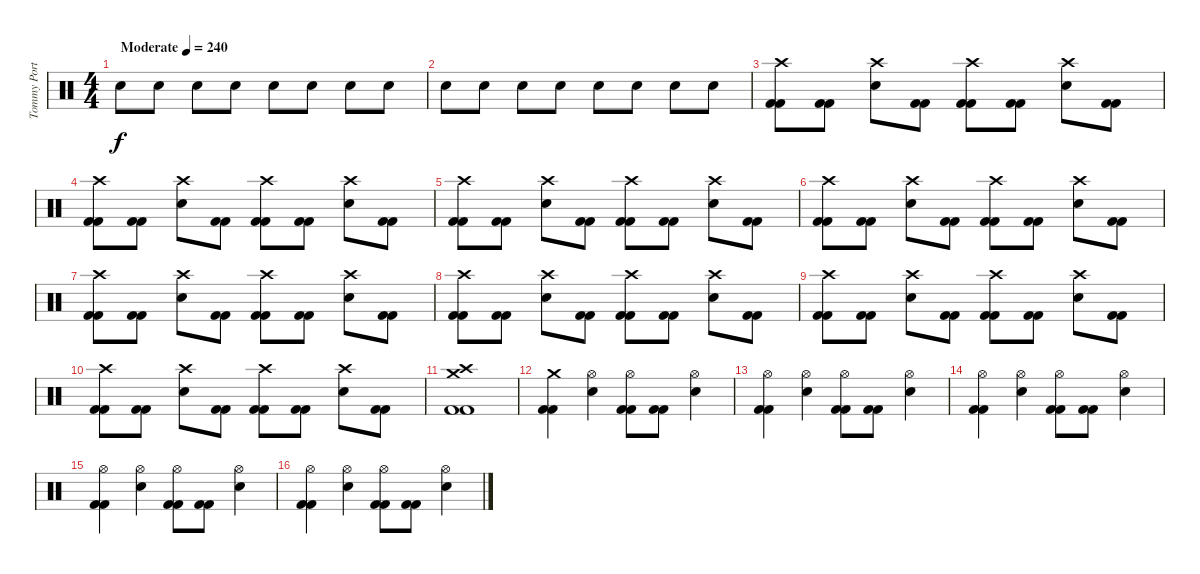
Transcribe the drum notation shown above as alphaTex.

\track ("Tommy Portimo " "Tommy Port") {instrument percussion}
\staff {score}
\articulation defaults
\ts (4 4)
\tempo (240 "Moderate")
\clef neutral
\ks c "Electric Snare (hit)".8{dy f} "Electric Snare (hit)".8 "Electric Snare (hit)".8 "Electric Snare (hit)".8 "Electric Snare (hit)".8 "Electric Snare (hit)".8 "Electric Snare (hit)".8 "Electric Snare (hit)".8
|
"Electric Snare (hit)".8 "Electric Snare (hit)".8 "Electric Snare (hit)".8 "Electric Snare (hit)".8 "Electric Snare (hit)".8 "Electric Snare (hit)".8 "Electric Snare (hit)".8 "Electric Snare (hit)".8 |
("Crash high (hit)" "Kick (hit) 2" "Kick (hit) 2").8 ("Kick (hit) 2" "Kick (hit) 2").8 ("Crash high (hit)" "Electric Snare (hit)").8 ("Kick (hit) 2" "Kick (hit) 2").8 ("Crash high (hit)" "Kick (hit) 2" "Kick (hit) 2").8 ("Kick (hit) 2" "Kick (hit) 2").8 ("Crash high (hit)" "Electric Snare (hit)").8 ("Kick (hit) 2" "Kick (hit) 2").8 |
("Crash high (hit)" "Kick (hit) 2" "Kick (hit) 2").8 ("Kick (hit) 2" "Kick (hit) 2").8 ("Crash high (hit)" "Electric Snare (hit)").8 ("Kick (hit) 2" "Kick (hit) 2").8 ("Crash high (hit)" "Kick (hit) 2" "Kick (hit) 2").8 ("Kick (hit) 2" "Kick (hit) 2").8 ("Crash high (hit)" "Electric Snare (hit)").8 ("Kick (hit) 2" "Kick (hit) 2").8 |
("Crash high (hit)" "Kick (hit) 2" "Kick (hit) 2").8 ("Kick (hit) 2" "Kick (hit) 2").8 ("Crash high (hit)" "Electric Snare (hit)").8 ("Kick (hit) 2" "Kick (hit) 2").8 ("Crash high (hit)" "Kick (hit) 2" "Kick (hit) 2").8 ("Kick (hit) 2" "Kick (hit) 2").8 ("Crash high (hit)" "Electric Snare (hit)").8 ("Kick (hit) 2" "Kick (hit) 2").8 |
("Crash high (hit)" "Kick (hit) 2" "Kick (hit) 2").8 ("Kick (hit) 2" "Kick (hit) 2").8 ("Crash high (hit)" "Electric Snare (hit)").8 ("Kick (hit) 2" "Kick (hit) 2").8 ("Crash high (hit)" "Kick (hit) 2" "Kick (hit) 2").8 ("Kick (hit) 2" "Kick (hit) 2").8 ("Crash high (hit)" "Electric Snare (hit)").8 ("Kick (hit) 2" "Kick (hit) 2").8 |
("Crash high (hit)" "Kick (hit) 2" "Kick (hit) 2").8 ("Kick (hit) 2" "Kick (hit) 2").8 ("Crash high (hit)" "Electric Snare (hit)").8 ("Kick (hit) 2" "Kick (hit) 2").8 ("Crash high (hit)" "Kick (hit) 2" "Kick (hit) 2").8 ("Kick (hit) 2" "Kick (hit) 2").8 ("Crash high (hit)" "Electric Snare (hit)").8 ("Kick (hit) 2" "Kick (hit) 2").8 |
("Crash high (hit)" "Kick (hit) 2" "Kick (hit) 2").8 ("Kick (hit) 2" "Kick (hit) 2").8 ("Crash high (hit)" "Electric Snare (hit)").8 ("Kick (hit) 2" "Kick (hit) 2").8 ("Crash high (hit)" "Kick (hit) 2" "Kick (hit) 2").8 ("Kick (hit) 2" "Kick (hit) 2").8 ("Crash high (hit)" "Electric Snare (hit)").8 ("Kick (hit) 2" "Kick (hit) 2").8 |
("Crash high (hit)" "Kick (hit) 2" "Kick (hit) 2").8 ("Kick (hit) 2" "Kick (hit) 2").8 ("Crash high (hit)" "Electric Snare (hit)").8 ("Kick (hit) 2" "Kick (hit) 2").8 ("Crash high (hit)" "Kick (hit) 2" "Kick (hit) 2").8 ("Kick (hit) 2" "Kick (hit) 2").8 ("Crash high (hit)" "Electric Snare (hit)").8 ("Kick (hit) 2" "Kick (hit) 2").8 |
("Crash high (hit)" "Kick (hit) 2" "Kick (hit) 2").8 ("Kick (hit) 2" "Kick (hit) 2").8 ("Crash high (hit)" "Electric Snare (hit)").8 ("Kick (hit) 2" "Kick (hit) 2").8 ("Crash high (hit)" "Kick (hit) 2" "Kick (hit) 2").8 ("Kick (hit) 2" "Kick (hit) 2").8 ("Crash high (hit)" "Electric Snare (hit)").8 ("Kick (hit) 2" "Kick (hit) 2").8 |
("Crash medium (hit)" "Crash high (hit)" "Kick (hit) 2" "Kick (hit) 2").1 |
("Crash medium (hit)" "Kick (hit) 2" "Kick (hit) 2").4 ("Hi-Hat (open)" "Electric Snare (hit)").4 ("Hi-Hat (open)" "Kick (hit) 2" "Kick (hit) 2").8 ("Kick (hit) 2" "Kick (hit) 2").8 ("Hi-Hat (open)" "Electric Snare (hit)").4 |
("Hi-Hat (open)" "Kick (hit) 2" "Kick (hit) 2").4 ("Hi-Hat (open)" "Electric Snare (hit)").4 ("Hi-Hat (open)" "Kick (hit) 2" "Kick (hit) 2").8 ("Kick (hit) 2" "Kick (hit) 2").8 ("Hi-Hat (open)" "Electric Snare (hit)").4 |
("Hi-Hat (open)" "Kick (hit) 2" "Kick (hit) 2").4 ("Hi-Hat (open)" "Electric Snare (hit)").4 ("Hi-Hat (open)" "Kick (hit) 2" "Kick (hit) 2").8 ("Kick (hit) 2" "Kick (hit) 2").8 ("Hi-Hat (open)" "Electric Snare (hit)").4 |
("Hi-Hat (open)" "Kick (hit) 2" "Kick (hit) 2").4 ("Hi-Hat (open)" "Electric Snare (hit)").4 ("Hi-Hat (open)" "Kick (hit) 2" "Kick (hit) 2").8 ("Kick (hit) 2" "Kick (hit) 2").8 ("Hi-Hat (open)" "Electric Snare (hit)").4 |
("Hi-Hat (open)" "Kick (hit) 2" "Kick (hit) 2").4 ("Hi-Hat (open)" "Electric Snare (hit)").4 ("Hi-Hat (open)" "Kick (hit) 2" "Kick (hit) 2").8 ("Kick (hit) 2" "Kick (hit) 2").8 ("Hi-Hat (open)" "Electric Snare (hit)").4
